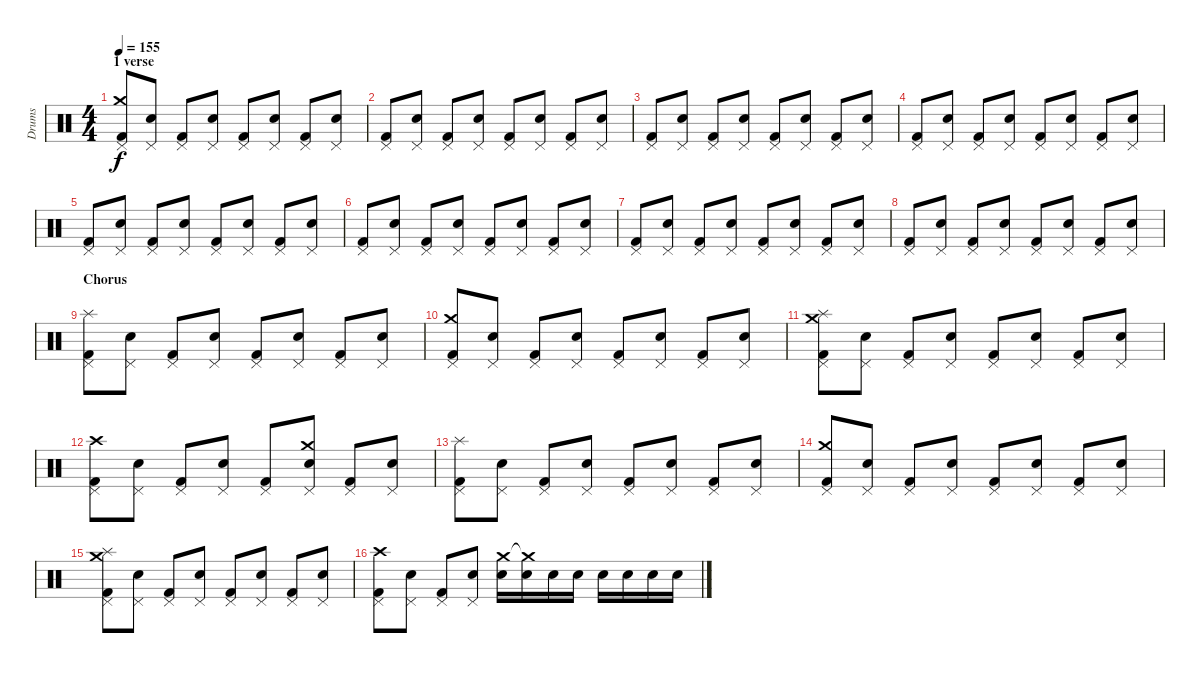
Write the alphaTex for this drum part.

\track ("Drums" "Drums") {instrument percussion}
\staff {score}
\articulation defaults
\ts (4 4)
\section ("" "1 verse")
\tempo 155
\clef neutral
\ks c
("Pedal Hi-Hat (hit)" "Crash medium (hit)" "Kick (hit) 2").8{dy f} ("Pedal Hi-Hat (hit)" "Electric Snare (hit)").8 ("Pedal Hi-Hat (hit)" "Kick (hit) 2").8 ("Pedal Hi-Hat (hit)" "Electric Snare (hit)").8 ("Pedal Hi-Hat (hit)" "Kick (hit) 2").8 ("Pedal Hi-Hat (hit)" "Electric Snare (hit)").8 ("Pedal Hi-Hat (hit)" "Kick (hit) 2").8 ("Pedal Hi-Hat (hit)" "Electric Snare (hit)").8 |
("Pedal Hi-Hat (hit)" "Kick (hit) 2").8 ("Pedal Hi-Hat (hit)" "Electric Snare (hit)").8 ("Pedal Hi-Hat (hit)" "Kick (hit) 2").8 ("Pedal Hi-Hat (hit)" "Electric Snare (hit)").8 ("Pedal Hi-Hat (hit)" "Kick (hit) 2").8 ("Pedal Hi-Hat (hit)" "Electric Snare (hit)").8 ("Pedal Hi-Hat (hit)" "Kick (hit) 2").8 ("Pedal Hi-Hat (hit)" "Electric Snare (hit)").8 |
("Pedal Hi-Hat (hit)" "Kick (hit) 2").8 ("Pedal Hi-Hat (hit)" "Electric Snare (hit)").8 ("Pedal Hi-Hat (hit)" "Kick (hit) 2").8 ("Pedal Hi-Hat (hit)" "Electric Snare (hit)").8 ("Pedal Hi-Hat (hit)" "Kick (hit) 2").8 ("Pedal Hi-Hat (hit)" "Electric Snare (hit)").8 ("Pedal Hi-Hat (hit)" "Kick (hit) 2").8 ("Pedal Hi-Hat (hit)" "Electric Snare (hit)").8 |
("Pedal Hi-Hat (hit)" "Kick (hit) 2").8 ("Pedal Hi-Hat (hit)" "Electric Snare (hit)").8 ("Pedal Hi-Hat (hit)" "Kick (hit) 2").8 ("Pedal Hi-Hat (hit)" "Electric Snare (hit)").8 ("Pedal Hi-Hat (hit)" "Kick (hit) 2").8 ("Pedal Hi-Hat (hit)" "Electric Snare (hit)").8 ("Pedal Hi-Hat (hit)" "Kick (hit) 2").8 ("Pedal Hi-Hat (hit)" "Electric Snare (hit)").8 |
("Pedal Hi-Hat (hit)" "Kick (hit) 2").8 ("Pedal Hi-Hat (hit)" "Electric Snare (hit)").8 ("Pedal Hi-Hat (hit)" "Kick (hit) 2").8 ("Pedal Hi-Hat (hit)" "Electric Snare (hit)").8 ("Pedal Hi-Hat (hit)" "Kick (hit) 2").8 ("Pedal Hi-Hat (hit)" "Electric Snare (hit)").8 ("Pedal Hi-Hat (hit)" "Kick (hit) 2").8 ("Pedal Hi-Hat (hit)" "Electric Snare (hit)").8 |
("Pedal Hi-Hat (hit)" "Kick (hit) 2").8 ("Pedal Hi-Hat (hit)" "Electric Snare (hit)").8 ("Pedal Hi-Hat (hit)" "Kick (hit) 2").8 ("Pedal Hi-Hat (hit)" "Electric Snare (hit)").8 ("Pedal Hi-Hat (hit)" "Kick (hit) 2").8 ("Pedal Hi-Hat (hit)" "Electric Snare (hit)").8 ("Pedal Hi-Hat (hit)" "Kick (hit) 2").8 ("Pedal Hi-Hat (hit)" "Electric Snare (hit)").8 |
("Pedal Hi-Hat (hit)" "Kick (hit) 2").8 ("Pedal Hi-Hat (hit)" "Electric Snare (hit)").8 ("Pedal Hi-Hat (hit)" "Kick (hit) 2").8 ("Pedal Hi-Hat (hit)" "Electric Snare (hit)").8 ("Pedal Hi-Hat (hit)" "Kick (hit) 2").8 ("Pedal Hi-Hat (hit)" "Electric Snare (hit)").8 ("Pedal Hi-Hat (hit)" "Kick (hit) 2").8 ("Pedal Hi-Hat (hit)" "Electric Snare (hit)").8 |
("Pedal Hi-Hat (hit)" "Kick (hit) 2").8 ("Pedal Hi-Hat (hit)" "Electric Snare (hit)").8 ("Pedal Hi-Hat (hit)" "Kick (hit) 2").8 ("Pedal Hi-Hat (hit)" "Electric Snare (hit)").8 ("Pedal Hi-Hat (hit)" "Kick (hit) 2").8 ("Pedal Hi-Hat (hit)" "Electric Snare (hit)").8 ("Pedal Hi-Hat (hit)" "Kick (hit) 2").8 ("Pedal Hi-Hat (hit)" "Electric Snare (hit)").8 |
\section ("" "Chorus")
("Pedal Hi-Hat (hit)" "Splash (hit)" "Kick (hit) 2").8 ("Pedal Hi-Hat (hit)" "Electric Snare (hit)").8 ("Pedal Hi-Hat (hit)" "Kick (hit) 2").8 ("Pedal Hi-Hat (hit)" "Electric Snare (hit)").8 ("Pedal Hi-Hat (hit)" "Kick (hit) 2").8 ("Pedal Hi-Hat (hit)" "Electric Snare (hit)").8 ("Pedal Hi-Hat (hit)" "Kick (hit) 2").8 ("Pedal Hi-Hat (hit)" "Electric Snare (hit)").8 |
("Pedal Hi-Hat (hit)" "Crash medium (hit)" "Kick (hit) 2").8 ("Pedal Hi-Hat (hit)" "Electric Snare (hit)").8 ("Pedal Hi-Hat (hit)" "Kick (hit) 2").8 ("Pedal Hi-Hat (hit)" "Electric Snare (hit)").8 ("Pedal Hi-Hat (hit)" "Kick (hit) 2").8 ("Pedal Hi-Hat (hit)" "Electric Snare (hit)").8 ("Pedal Hi-Hat (hit)" "Kick (hit) 2").8 ("Pedal Hi-Hat (hit)" "Electric Snare (hit)").8 |
("Pedal Hi-Hat (hit)" "Splash (hit)" "Crash medium (hit)" "Kick (hit) 2").8 ("Pedal Hi-Hat (hit)" "Electric Snare (hit)").8 ("Pedal Hi-Hat (hit)" "Kick (hit) 2").8 ("Pedal Hi-Hat (hit)" "Electric Snare (hit)").8 ("Pedal Hi-Hat (hit)" "Kick (hit) 2").8 ("Pedal Hi-Hat (hit)" "Electric Snare (hit)").8 ("Pedal Hi-Hat (hit)" "Kick (hit) 2").8 ("Pedal Hi-Hat (hit)" "Electric Snare (hit)").8 |
("Pedal Hi-Hat (hit)" "Crash high (hit)" "Kick (hit) 2").8 ("Pedal Hi-Hat (hit)" "Electric Snare (hit)").8 ("Pedal Hi-Hat (hit)" "Kick (hit) 2").8 ("Pedal Hi-Hat (hit)" "Electric Snare (hit)").8 ("Pedal Hi-Hat (hit)" "Kick (hit) 2").8 ("Pedal Hi-Hat (hit)" "Crash medium (hit)" "Electric Snare (hit)").8 ("Pedal Hi-Hat (hit)" "Kick (hit) 2").8 ("Pedal Hi-Hat (hit)" "Electric Snare (hit)").8 |
("Pedal Hi-Hat (hit)" "Splash (hit)" "Kick (hit) 2").8 ("Pedal Hi-Hat (hit)" "Electric Snare (hit)").8 ("Pedal Hi-Hat (hit)" "Kick (hit) 2").8 ("Pedal Hi-Hat (hit)" "Electric Snare (hit)").8 ("Pedal Hi-Hat (hit)" "Kick (hit) 2").8 ("Pedal Hi-Hat (hit)" "Electric Snare (hit)").8 ("Pedal Hi-Hat (hit)" "Kick (hit) 2").8 ("Pedal Hi-Hat (hit)" "Electric Snare (hit)").8 |
("Pedal Hi-Hat (hit)" "Crash medium (hit)" "Kick (hit) 2").8 ("Pedal Hi-Hat (hit)" "Electric Snare (hit)").8 ("Pedal Hi-Hat (hit)" "Kick (hit) 2").8 ("Pedal Hi-Hat (hit)" "Electric Snare (hit)").8 ("Pedal Hi-Hat (hit)" "Kick (hit) 2").8 ("Pedal Hi-Hat (hit)" "Electric Snare (hit)").8 ("Pedal Hi-Hat (hit)" "Kick (hit) 2").8 ("Pedal Hi-Hat (hit)" "Electric Snare (hit)").8 |
("Pedal Hi-Hat (hit)" "Splash (hit)" "Crash medium (hit)" "Kick (hit) 2").8 ("Pedal Hi-Hat (hit)" "Electric Snare (hit)").8 ("Pedal Hi-Hat (hit)" "Kick (hit) 2").8 ("Pedal Hi-Hat (hit)" "Electric Snare (hit)").8 ("Pedal Hi-Hat (hit)" "Kick (hit) 2").8 ("Pedal Hi-Hat (hit)" "Electric Snare (hit)").8 ("Pedal Hi-Hat (hit)" "Kick (hit) 2").8 ("Pedal Hi-Hat (hit)" "Electric Snare (hit)").8 |
("Pedal Hi-Hat (hit)" "Crash high (hit)" "Kick (hit) 2").8 ("Pedal Hi-Hat (hit)" "Electric Snare (hit)").8 ("Pedal Hi-Hat (hit)" "Kick (hit) 2").8 ("Pedal Hi-Hat (hit)" "Electric Snare (hit)").8 ("Crash medium (hit)" "Electric Snare (hit)").16 ("Crash medium (hit)"{t} "Electric Snare (hit)").16 "Electric Snare (hit)".16 "Electric Snare (hit)".16 "Electric Snare (hit)".16 "Electric Snare (hit)".16 "Electric Snare (hit)".16 "Electric Snare (hit)".16
